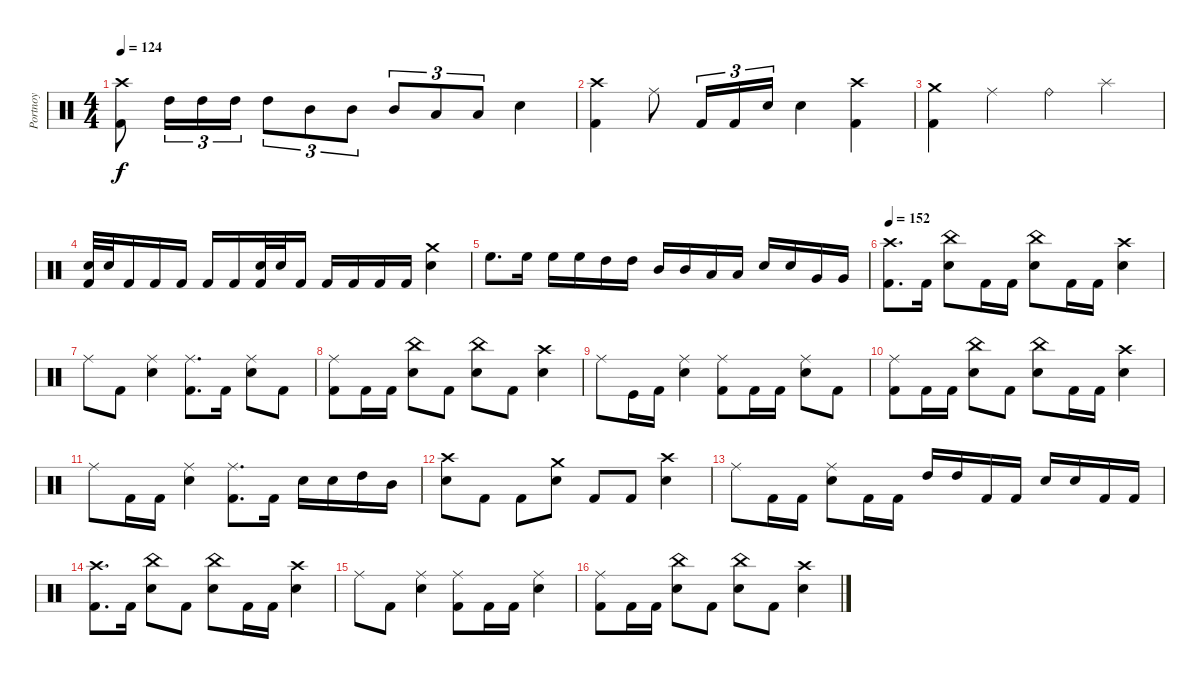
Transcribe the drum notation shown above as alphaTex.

\track ("Portnoy" "Portnoy") {instrument percussion}
\staff {score}
\articulation defaults
\ts (4 4)
\tempo 124
\clef neutral
\ks c
("Crash high (hit)" "Kick (hit) 2").8{dy f} "High Tom (hit)".16{tu (3 2)} "High Tom (hit)".16{tu (3 2)} "High Tom (hit)".16{tu (3 2)} "High Tom (hit)".8{tu (3 2)} "Mid Tom (hit)".8{tu (3 2)} "Mid Tom (hit)".8{tu (3 2)} "Mid Tom (hit)".8{tu (3 2)} "Low Tom (hit)".8{tu (3 2)} "Low Tom (hit)".8{tu (3 2)} "Electric Snare (hit)".4 |
("Crash high (hit)" "Kick (hit) 2").4 "Ride (middle)".8 "Kick (hit) 2".16{tu (3 2)} "Kick (hit) 2".16{tu (3 2)} "Electric Snare (hit)".16{tu (3 2)} "Electric Snare (hit)".4 ("Crash high (hit)" "Kick (hit) 2").4 |
("Crash medium (hit)" "Kick (hit) 2").4 "Ride (middle)".4 "Ride (bell)".4 "Splash (hit)".4 |
("Electric Snare (hit)" "Kick (hit) 2").32 "Electric Snare (hit)".32 "Kick (hit) 2".16 "Kick (hit) 2".16 "Kick (hit) 2".16 "Kick (hit) 2".16 "Kick (hit) 2".16 ("Electric Snare (hit)" "Kick (hit) 2").32 "Electric Snare (hit)".32 "Kick (hit) 2".16 "Kick (hit) 2".16 "Kick (hit) 2".16 "Kick (hit) 2".16 "Kick (hit) 2".16 ("Crash medium (hit)" "Electric Snare (hit)").4 |
"High Floor Tom (hit)".8{d} "High Floor Tom (hit)".16 "High Floor Tom (hit)".16 "High Floor Tom (hit)".16 "High Tom (hit)".16 "High Tom (hit)".16 "Mid Tom (hit)".16 "Mid Tom (hit)".16 "Low Tom (hit)".16 "Low Tom (hit)".16 "Electric Snare (hit)".16 "Electric Snare (hit)".16 "Very Low Tom (hit)".16 "Very Low Tom (hit)".16 |
\tempo 152
("Crash high (hit)" "Kick (hit) 2").8{d} "Kick (hit) 2".16 ("China (hit)" "Electric Snare (hit)").8 "Kick (hit) 2".16 "Kick (hit) 2".16 ("China (hit)" "Electric Snare (hit)").8 "Kick (hit) 2".16 "Kick (hit) 2".16 ("Crash high (hit)" "Electric Snare (hit)").4 |
"Ride (middle)".8 "Kick (hit) 2".8 ("Ride (middle)" "Electric Snare (hit)").4 ("Ride (middle)" "Kick (hit) 2").8{d} "Kick (hit) 2".16 ("Ride (middle)" "Electric Snare (hit)").8 "Kick (hit) 2".8 |
("Ride (middle)" "Kick (hit) 2").8 "Kick (hit) 2".16 "Kick (hit) 2".16 ("China (hit)" "Electric Snare (hit)").8 "Kick (hit) 2".8 ("China (hit)" "Electric Snare (hit)").8 "Kick (hit) 2".8 ("Crash high (hit)" "Electric Snare (hit)").4 |
"Ride (middle)".8 "Kick (hit)".16 "Kick (hit) 2".16 ("Ride (middle)" "Electric Snare (hit)").4 ("Ride (middle)" "Kick (hit) 2").8 "Kick (hit) 2".16 "Kick (hit) 2".16 ("Ride (middle)" "Electric Snare (hit)").8 "Kick (hit) 2".8 |
("Ride (middle)" "Kick (hit) 2").8 "Kick (hit) 2".16 "Kick (hit) 2".16 ("China (hit)" "Electric Snare (hit)").8 "Kick (hit) 2".8 ("China (hit)" "Electric Snare (hit)").8 "Kick (hit) 2".16 "Kick (hit) 2".16 ("Crash high (hit)" "Electric Snare (hit)").4 |
"Ride (middle)".8 "Kick (hit) 2".16 "Kick (hit) 2".16 ("Ride (middle)" "Electric Snare (hit)").4 ("Ride (middle)" "Kick (hit) 2").8{d} "Kick (hit) 2".16 "Electric Snare (hit)".16 "Electric Snare (hit)".16 "High Tom (hit)".16 "Mid Tom (hit)".16 |
("Crash high (hit)" "Electric Snare (hit)").8 "Kick (hit) 2".8 "Kick (hit) 2".8 ("Crash medium (hit)" "Electric Snare (hit)").8 "Kick (hit) 2".8 "Kick (hit) 2".8 ("Crash high (hit)" "Electric Snare (hit)").4 |
"Ride (middle)".8 "Kick (hit) 2".16 "Kick (hit) 2".16 ("Ride (middle)" "Electric Snare (hit)").8 "Kick (hit) 2".16 "Kick (hit) 2".16 "High Tom (hit)".16 "High Tom (hit)".16 "Kick (hit) 2".16 "Kick (hit) 2".16 "Electric Snare (hit)".16 "Electric Snare (hit)".16 "Kick (hit) 2".16 "Kick (hit) 2".16 |
("Crash high (hit)" "Kick (hit) 2").8{d} "Kick (hit) 2".16 ("China (hit)" "Electric Snare (hit)").8 "Kick (hit) 2".8 ("China (hit)" "Electric Snare (hit)").8 "Kick (hit) 2".16 "Kick (hit) 2".16 ("Crash high (hit)" "Electric Snare (hit)").4 |
"Ride (middle)".8 "Kick (hit) 2".8 ("Ride (middle)" "Electric Snare (hit)").4 ("Ride (middle)" "Kick (hit) 2").8 "Kick (hit) 2".16 "Kick (hit) 2".16 ("Ride (middle)" "Electric Snare (hit)").4 |
("Ride (middle)" "Kick (hit) 2").8 "Kick (hit) 2".16 "Kick (hit) 2".16 ("China (hit)" "Electric Snare (hit)").8 "Kick (hit) 2".8 ("China (hit)" "Electric Snare (hit)").8 "Kick (hit) 2".8 ("Crash high (hit)" "Electric Snare (hit)").4
